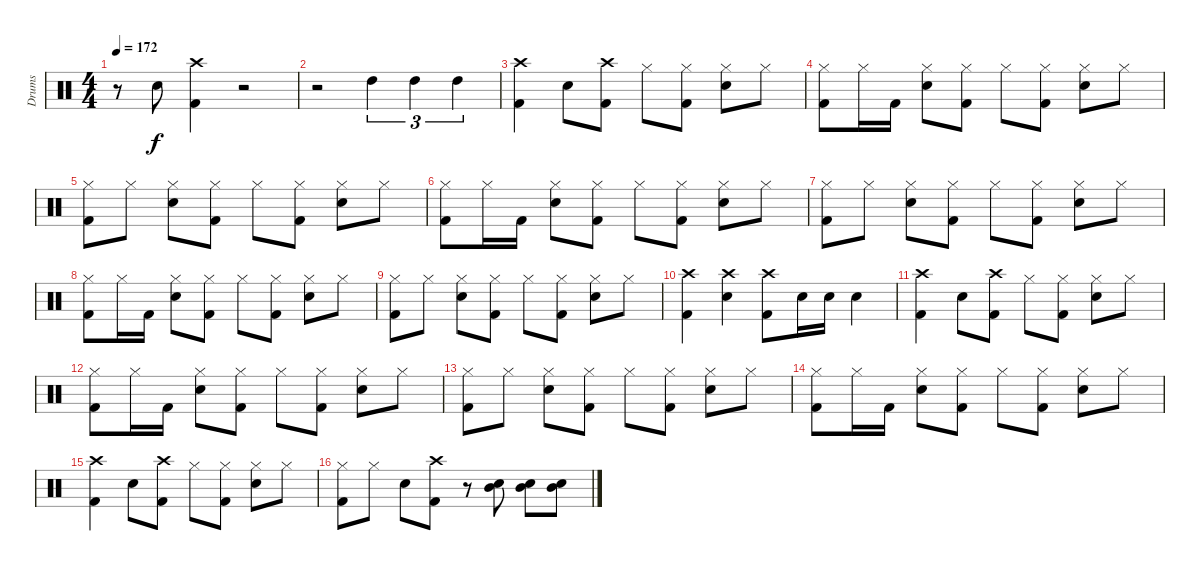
\track ("Drums" "Drums") {instrument percussion}
\staff {score}
\articulation defaults
\ts (4 4)
\tempo 172
\clef neutral
\ks c
r.8{dy f} "Electric Snare (hit)".8 ("Crash high (hit)" "Kick (hit) 2").4 r.2 |
r.2 "High Tom (hit)".4{tu (3 2)} "High Tom (hit)".4{tu (3 2)} "High Tom (hit)".4{tu (3 2)} |
("Crash high (hit)" "Kick (hit) 2").4 "Electric Snare (hit)".8 ("Crash high (hit)" "Kick (hit) 2").8 "Hi-Hat (closed)".8 ("Hi-Hat (closed)" "Kick (hit) 2").8 ("Hi-Hat (closed)" "Electric Snare (hit)").8 "Hi-Hat (closed)".8 |
("Hi-Hat (closed)" "Kick (hit) 2").8 "Hi-Hat (closed)".16 "Kick (hit) 2".16 ("Hi-Hat (closed)" "Electric Snare (hit)").8 ("Hi-Hat (closed)" "Kick (hit) 2").8 "Hi-Hat (closed)".8 ("Hi-Hat (closed)" "Kick (hit) 2").8 ("Hi-Hat (closed)" "Electric Snare (hit)").8 "Hi-Hat (closed)".8 |
("Hi-Hat (closed)" "Kick (hit) 2").8 "Hi-Hat (closed)".8 ("Hi-Hat (closed)" "Electric Snare (hit)").8 ("Hi-Hat (closed)" "Kick (hit) 2").8 "Hi-Hat (closed)".8 ("Hi-Hat (closed)" "Kick (hit) 2").8 ("Hi-Hat (closed)" "Electric Snare (hit)").8 "Hi-Hat (closed)".8 |
("Hi-Hat (closed)" "Kick (hit) 2").8 "Hi-Hat (closed)".16 "Kick (hit) 2".16 ("Hi-Hat (closed)" "Electric Snare (hit)").8 ("Hi-Hat (closed)" "Kick (hit) 2").8 "Hi-Hat (closed)".8 ("Hi-Hat (closed)" "Kick (hit) 2").8 ("Hi-Hat (closed)" "Electric Snare (hit)").8 "Hi-Hat (closed)".8 |
("Hi-Hat (closed)" "Kick (hit) 2").8 "Hi-Hat (closed)".8 ("Hi-Hat (closed)" "Electric Snare (hit)").8 ("Hi-Hat (closed)" "Kick (hit) 2").8 "Hi-Hat (closed)".8 ("Hi-Hat (closed)" "Kick (hit) 2").8 ("Hi-Hat (closed)" "Electric Snare (hit)").8 "Hi-Hat (closed)".8 |
("Hi-Hat (closed)" "Kick (hit) 2").8 "Hi-Hat (closed)".16 "Kick (hit) 2".16 ("Hi-Hat (closed)" "Electric Snare (hit)").8 ("Hi-Hat (closed)" "Kick (hit) 2").8 "Hi-Hat (closed)".8 ("Hi-Hat (closed)" "Kick (hit) 2").8 ("Hi-Hat (closed)" "Electric Snare (hit)").8 "Hi-Hat (closed)".8 |
("Hi-Hat (closed)" "Kick (hit) 2").8 "Hi-Hat (closed)".8 ("Hi-Hat (closed)" "Electric Snare (hit)").8 ("Hi-Hat (closed)" "Kick (hit) 2").8 "Hi-Hat (closed)".8 ("Hi-Hat (closed)" "Kick (hit) 2").8 ("Hi-Hat (closed)" "Electric Snare (hit)").8 "Hi-Hat (closed)".8 |
("Crash high (hit)" "Kick (hit) 2").4 ("Crash high (hit)" "Electric Snare (hit)").4 ("Crash high (hit)" "Kick (hit) 2").8 "Electric Snare (hit)".16 "Electric Snare (hit)".16 "Electric Snare (hit)".4 |
("Crash high (hit)" "Kick (hit) 2").4 "Electric Snare (hit)".8 ("Crash high (hit)" "Kick (hit) 2").8 "Hi-Hat (closed)".8 ("Hi-Hat (closed)" "Kick (hit) 2").8 ("Hi-Hat (closed)" "Electric Snare (hit)").8 "Hi-Hat (closed)".8 |
("Hi-Hat (closed)" "Kick (hit) 2").8 "Hi-Hat (closed)".16 "Kick (hit) 2".16 ("Hi-Hat (closed)" "Electric Snare (hit)").8 ("Hi-Hat (closed)" "Kick (hit) 2").8 "Hi-Hat (closed)".8 ("Hi-Hat (closed)" "Kick (hit) 2").8 ("Hi-Hat (closed)" "Electric Snare (hit)").8 "Hi-Hat (closed)".8 |
("Hi-Hat (closed)" "Kick (hit) 2").8 "Hi-Hat (closed)".8 ("Hi-Hat (closed)" "Electric Snare (hit)").8 ("Hi-Hat (closed)" "Kick (hit) 2").8 "Hi-Hat (closed)".8 ("Hi-Hat (closed)" "Kick (hit) 2").8 ("Hi-Hat (closed)" "Electric Snare (hit)").8 "Hi-Hat (closed)".8 |
("Hi-Hat (closed)" "Kick (hit) 2").8 "Hi-Hat (closed)".16 "Kick (hit) 2".16 ("Hi-Hat (closed)" "Electric Snare (hit)").8 ("Hi-Hat (closed)" "Kick (hit) 2").8 "Hi-Hat (closed)".8 ("Hi-Hat (closed)" "Kick (hit) 2").8 ("Hi-Hat (closed)" "Electric Snare (hit)").8 "Hi-Hat (closed)".8 |
("Crash high (hit)" "Kick (hit) 2").4 "Electric Snare (hit)".8 ("Crash high (hit)" "Kick (hit) 2").8 "Hi-Hat (closed)".8 ("Hi-Hat (closed)" "Kick (hit) 2").8 ("Hi-Hat (closed)" "Electric Snare (hit)").8 "Hi-Hat (closed)".8 |
("Hi-Hat (closed)" "Kick (hit) 2").8 "Hi-Hat (closed)".8 "Electric Snare (hit)".8 ("Crash high (hit)" "Kick (hit) 2").8 r.8 ("Mid Tom (hit)" "Electric Snare (hit)").8 ("Mid Tom (hit)" "Electric Snare (hit)").8 ("Mid Tom (hit)" "Electric Snare (hit)").8
